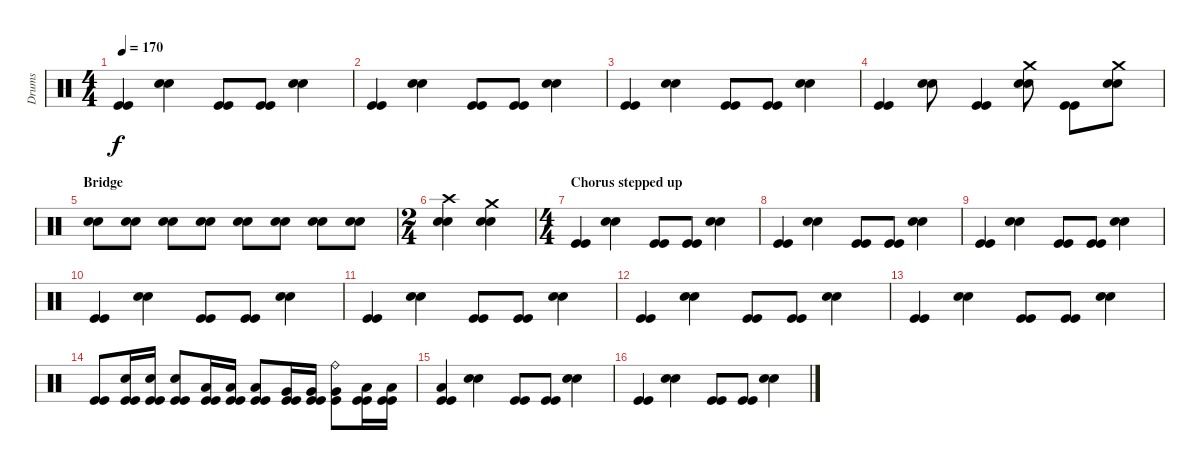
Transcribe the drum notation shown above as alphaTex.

\track ("Drums" "Drums") {instrument percussion}
\staff {score}
\articulation defaults
\ts (4 4)
\tempo 170
\clef neutral
\ks c
("Kick (hit)" "Kick (hit)").4{dy f} ("Snare (hit) 2" "Snare (hit) 2").4 ("Kick (hit)" "Kick (hit)").8 ("Kick (hit)" "Kick (hit)").8 ("Snare (hit) 2" "Snare (hit) 2").4 |
("Kick (hit)" "Kick (hit)").4 ("Snare (hit) 2" "Snare (hit) 2").4 ("Kick (hit)" "Kick (hit)").8 ("Kick (hit)" "Kick (hit)").8 ("Snare (hit) 2" "Snare (hit) 2").4 |
("Kick (hit)" "Kick (hit)").4 ("Snare (hit) 2" "Snare (hit) 2").4 ("Kick (hit)" "Kick (hit)").8 ("Kick (hit)" "Kick (hit)").8 ("Snare (hit) 2" "Snare (hit) 2").4 |
("Kick (hit)" "Kick (hit)").4 ("Snare (hit) 2" "Snare (hit) 2").8 ("Kick (hit)" "Kick (hit)").4 ("Crash medium (hit)" "Snare (hit) 2" "Snare (hit) 2").8 ("Kick (hit)" "Kick (hit)").8 ("Crash medium (hit)" "Snare (hit) 2" "Snare (hit) 2").8 |
\section ("" "Bridge")
("Snare (hit) 2" "Snare (hit) 2").8 ("Snare (hit) 2" "Snare (hit) 2").8 ("Snare (hit) 2" "Snare (hit) 2").8 ("Snare (hit) 2" "Snare (hit) 2").8 ("Snare (hit) 2" "Snare (hit) 2").8 ("Snare (hit) 2" "Snare (hit) 2").8 ("Snare (hit) 2" "Snare (hit) 2").8 ("Snare (hit) 2" "Snare (hit) 2").8 |
\ts (2 4)
("Crash high (hit)" "Snare (hit) 2" "Snare (hit) 2").4 ("Crash medium (hit)" "Snare (hit) 2" "Snare (hit) 2").4 |
\ts (4 4)
\section ("" "Chorus stepped up")
("Kick (hit)" "Kick (hit)").4 ("Snare (hit) 2" "Snare (hit) 2").4 ("Kick (hit)" "Kick (hit)").8 ("Kick (hit)" "Kick (hit)").8 ("Snare (hit) 2" "Snare (hit) 2").4 |
("Kick (hit)" "Kick (hit)").4 ("Snare (hit) 2" "Snare (hit) 2").4 ("Kick (hit)" "Kick (hit)").8 ("Kick (hit)" "Kick (hit)").8 ("Snare (hit) 2" "Snare (hit) 2").4 |
("Kick (hit)" "Kick (hit)").4 ("Snare (hit) 2" "Snare (hit) 2").4 ("Kick (hit)" "Kick (hit)").8 ("Kick (hit)" "Kick (hit)").8 ("Snare (hit) 2" "Snare (hit) 2").4 |
("Kick (hit)" "Kick (hit)").4 ("Snare (hit) 2" "Snare (hit) 2").4 ("Kick (hit)" "Kick (hit)").8 ("Kick (hit)" "Kick (hit)").8 ("Snare (hit) 2" "Snare (hit) 2").4 |
("Kick (hit)" "Kick (hit)").4 ("Snare (hit) 2" "Snare (hit) 2").4 ("Kick (hit)" "Kick (hit)").8 ("Kick (hit)" "Kick (hit)").8 ("Snare (hit) 2" "Snare (hit) 2").4 |
("Kick (hit)" "Kick (hit)").4 ("Snare (hit) 2" "Snare (hit) 2").4 ("Kick (hit)" "Kick (hit)").8 ("Kick (hit)" "Kick (hit)").8 ("Snare (hit) 2" "Snare (hit) 2").4 |
("Kick (hit)" "Kick (hit)").4 ("Snare (hit) 2" "Snare (hit) 2").4 ("Kick (hit)" "Kick (hit)").8 ("Kick (hit)" "Kick (hit)").8 ("Snare (hit) 2" "Snare (hit) 2").4 |
("Kick (hit)" "Kick (hit)").8 ("Snare (hit) 2" "Kick (hit)" "Kick (hit)").16 ("Snare (hit) 2" "Kick (hit)" "Kick (hit)").16 ("Snare (hit) 2" "Kick (hit)" "Kick (hit)").8 ("Low Tom (hit)" "Kick (hit)" "Kick (hit)").16 ("Low Tom (hit)" "Kick (hit)" "Kick (hit)").16 ("Low Tom (hit)" "Kick (hit)" "Kick (hit)").8 ("Very Low Tom (hit)" "Kick (hit)" "Kick (hit)").16 ("Very Low Tom (hit)" "Kick (hit)" "Kick (hit)").16 ("Very Low Tom (hit)" "Kick (hit)" "Ride (bell)").8 ("Low Floor Tom (hit)" "Kick (hit)" "Kick (hit)").16 ("Low Floor Tom (hit)" "Kick (hit)" "Kick (hit)").16 |
("Low Floor Tom (hit)" "Kick (hit)" "Kick (hit)").4 ("Snare (hit) 2" "Snare (hit) 2").4 ("Kick (hit)" "Kick (hit)").8 ("Kick (hit)" "Kick (hit)").8 ("Snare (hit) 2" "Snare (hit) 2").4 |
("Kick (hit)" "Kick (hit)").4 ("Snare (hit) 2" "Snare (hit) 2").4 ("Kick (hit)" "Kick (hit)").8 ("Kick (hit)" "Kick (hit)").8 ("Snare (hit) 2" "Snare (hit) 2").4
